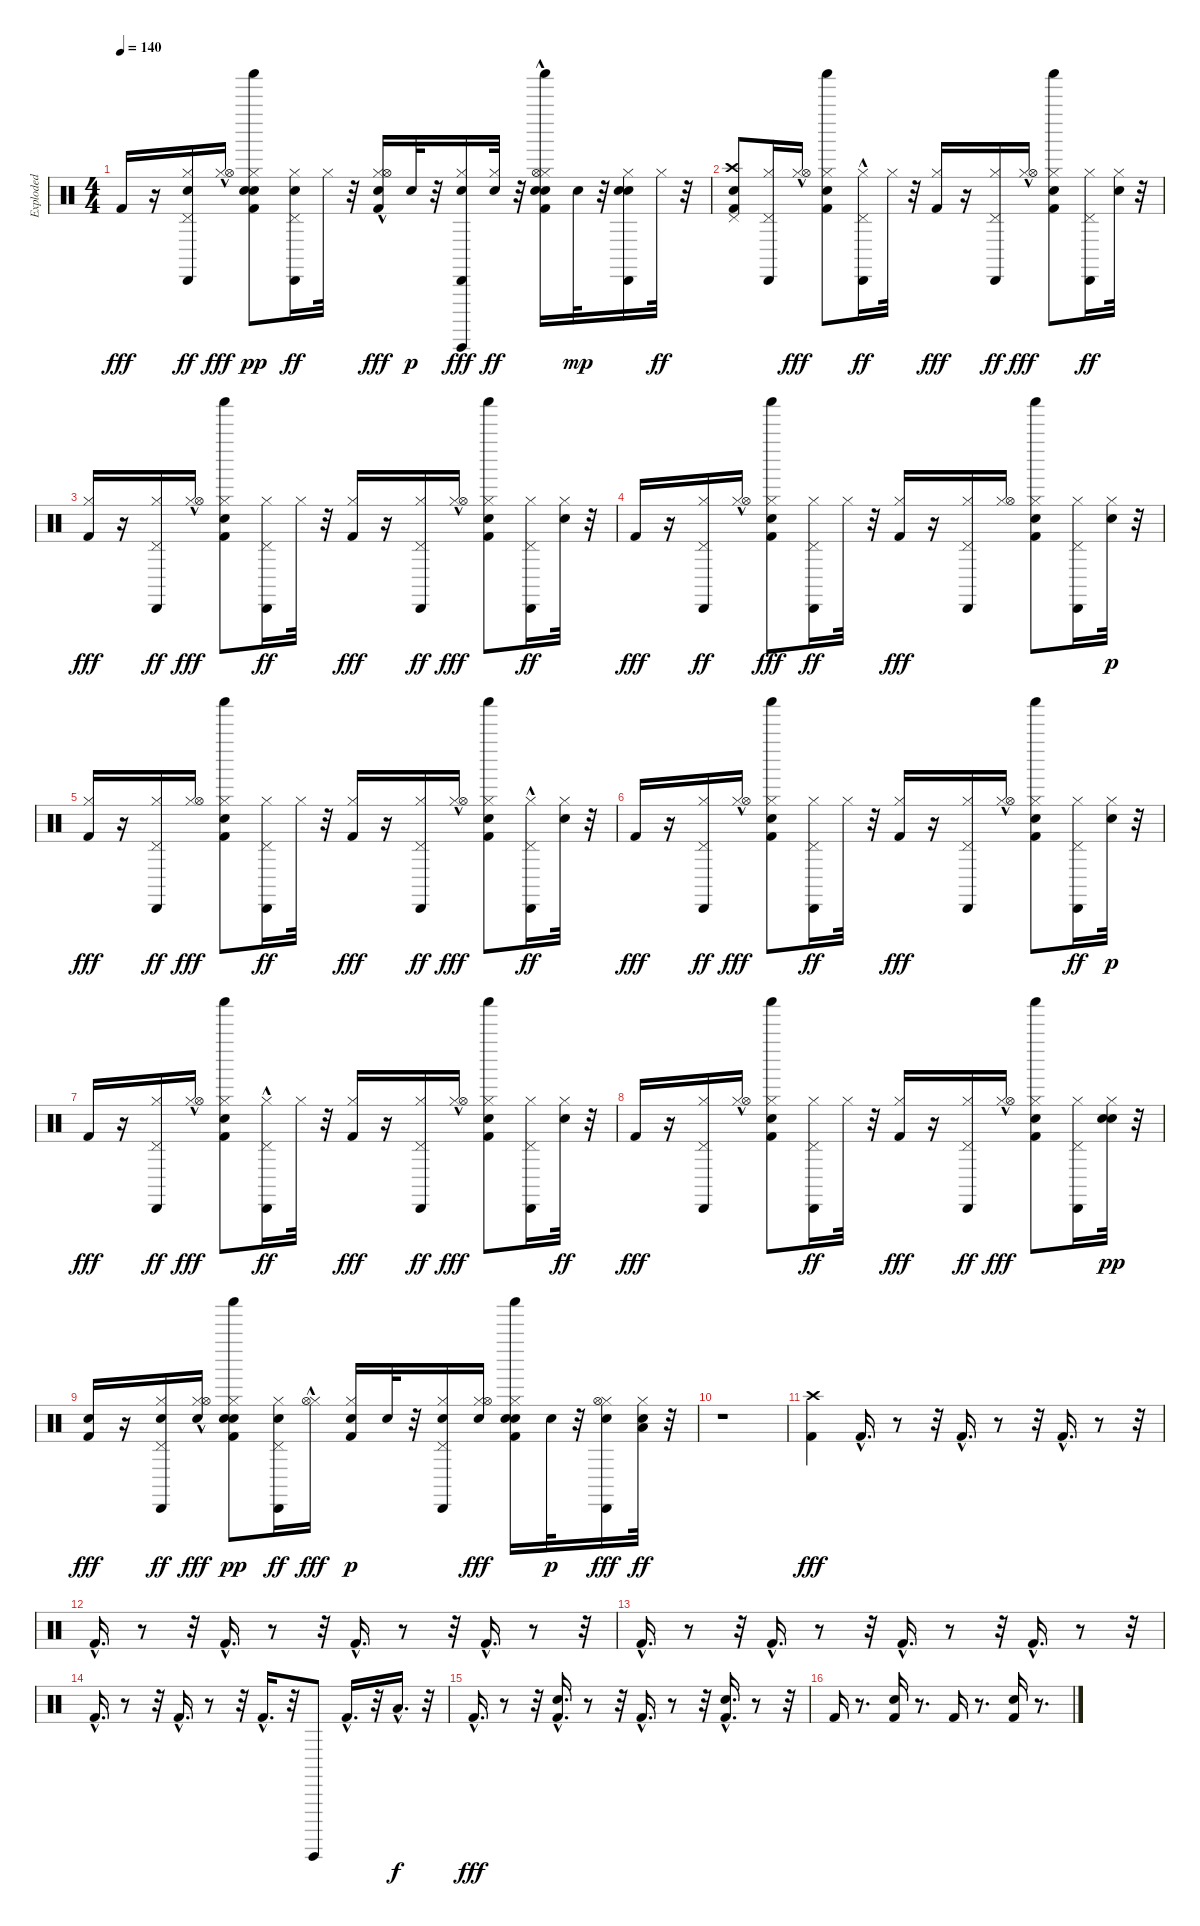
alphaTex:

\track ("Exploded" "Exploded") {instrument percussion}
\staff {score}
\articulation defaults
\ts (4 4)
\tempo 140
\clef neutral
\ks c "Kick (hit) 2".16{dy fff}
r.16 ("Cabasa (hit)" "Hi-Hat (closed)" "Snare (hit) 2" "Pedal Hi-Hat (hit)").16{dy ff} ("Hi-Hat (closed)" "Hi-Hat (open)"{hac}).16{dy fff} ("Hand Clap (hit)" "Shaker (hit)" "Hi-Hat (closed)" "Kick (hit) 2" "Snare (hit) 2").8{dy pp} ("Cabasa (hit)" "Hi-Hat (closed)" "Snare (hit) 2" "Pedal Hi-Hat (hit)").16{dy ff} "Hi-Hat (closed)".32 r.32 ("Hi-Hat (closed)" "Kick (hit) 2" "Snare (hit) 2" "Hi-Hat (open)"{hac}).16{dy fff} "Snare (hit) 2".32{dy p} r.32 ("Guiro (hit)" "Snare (hit) 2" "Cabasa (hit)" "Hi-Hat (closed)").16{dy fff} ("Snare (hit) 2" "Hi-Hat (closed)").32{dy ff} r.32 ("Snare (hit) 2" "Hand Clap (hit)" "Shaker (hit)" "Hi-Hat (closed)" "Kick (hit) 2" "Hi-Hat (open)"{hac}).16 "Snare (hit) 2".32{dy mp} r.32 ("Snare (hit) 2" "Cabasa (hit)" "Hi-Hat (closed)" "Snare (hit) 2").16 "Hi-Hat (closed)".32{dy ff} r.32 |
("Snare (hit) 2" "Crash high (hit)" "Kick (hit) 2" "Pedal Hi-Hat (hit)").8 ("Cabasa (hit)" "Hi-Hat (closed)" "Pedal Hi-Hat (hit)").16 ("Hi-Hat (closed)" "Hi-Hat (open)"{hac}).16{dy fff} ("Hand Clap (hit)" "Shaker (hit)" "Hi-Hat (closed)" "Kick (hit) 2").8 ("Cabasa (hit)"{hac} "Hi-Hat (closed)" "Pedal Hi-Hat (hit)").16{dy ff} "Hi-Hat (closed)".32 r.32 ("Hi-Hat (closed)" "Kick (hit) 2").16{dy fff} r.16 ("Cabasa (hit)" "Hi-Hat (closed)" "Pedal Hi-Hat (hit)").16{dy ff} ("Hi-Hat (closed)" "Hi-Hat (open)"{hac}).16{dy fff} ("Hand Clap (hit)" "Shaker (hit)" "Hi-Hat (closed)" "Kick (hit) 2").8 ("Cabasa (hit)" "Hi-Hat (closed)" "Pedal Hi-Hat (hit)").16{dy ff} ("Snare (hit) 2" "Hi-Hat (closed)").32 r.32 |
("Hi-Hat (closed)" "Kick (hit) 2").16{dy fff} r.16 ("Cabasa (hit)" "Hi-Hat (closed)" "Pedal Hi-Hat (hit)").16{dy ff} ("Hi-Hat (closed)" "Hi-Hat (open)"{hac}).16{dy fff} ("Hand Clap (hit)" "Shaker (hit)" "Hi-Hat (closed)" "Kick (hit) 2").8 ("Cabasa (hit)" "Hi-Hat (closed)" "Pedal Hi-Hat (hit)").16{dy ff} "Hi-Hat (closed)".32 r.32 ("Hi-Hat (closed)" "Kick (hit) 2").16{dy fff} r.16 ("Cabasa (hit)" "Hi-Hat (closed)" "Pedal Hi-Hat (hit)").16{dy ff} ("Hi-Hat (closed)" "Hi-Hat (open)"{hac}).16{dy fff} ("Hand Clap (hit)" "Shaker (hit)" "Hi-Hat (closed)" "Kick (hit) 2").8 ("Cabasa (hit)" "Hi-Hat (closed)" "Pedal Hi-Hat (hit)").16{dy ff} ("Snare (hit) 2" "Hi-Hat (closed)").32 r.32 |
"Kick (hit) 2".16{dy fff} r.16 ("Cabasa (hit)" "Hi-Hat (closed)" "Pedal Hi-Hat (hit)").16{dy ff} ("Hi-Hat (closed)" "Hi-Hat (open)"{hac}).16 ("Hand Clap (hit)" "Shaker (hit)" "Hi-Hat (closed)" "Kick (hit) 2").8{dy fff} ("Cabasa (hit)" "Hi-Hat (closed)" "Pedal Hi-Hat (hit)").16{dy ff} "Hi-Hat (closed)".32 r.32 ("Hi-Hat (closed)" "Kick (hit) 2").16{dy fff} r.16 ("Cabasa (hit)" "Hi-Hat (closed)" "Pedal Hi-Hat (hit)").16 ("Hi-Hat (closed)" "Hi-Hat (open)").16 ("Hand Clap (hit)" "Shaker (hit)" "Hi-Hat (closed)" "Kick (hit) 2").8 ("Cabasa (hit)" "Hi-Hat (closed)" "Pedal Hi-Hat (hit)").16 ("Hi-Hat (closed)" "Snare (hit) 2").32{dy p} r.32 |
("Hi-Hat (closed)" "Kick (hit) 2").16{dy fff} r.16 ("Cabasa (hit)" "Hi-Hat (closed)" "Pedal Hi-Hat (hit)").16{dy ff} ("Hi-Hat (closed)" "Hi-Hat (open)").16{dy fff} ("Hand Clap (hit)" "Shaker (hit)" "Hi-Hat (closed)" "Kick (hit) 2").8 ("Cabasa (hit)" "Hi-Hat (closed)" "Pedal Hi-Hat (hit)").16{dy ff} "Hi-Hat (closed)".32 r.32 ("Hi-Hat (closed)" "Kick (hit) 2").16{dy fff} r.16 ("Cabasa (hit)" "Hi-Hat (closed)" "Pedal Hi-Hat (hit)").16{dy ff} ("Hi-Hat (closed)" "Hi-Hat (open)"{hac}).16{dy fff} ("Hand Clap (hit)" "Shaker (hit)" "Hi-Hat (closed)" "Kick (hit) 2").8 ("Cabasa (hit)"{hac} "Hi-Hat (closed)" "Pedal Hi-Hat (hit)").16{dy ff} ("Snare (hit) 2" "Hi-Hat (closed)").32 r.32 |
"Kick (hit) 2".16{dy fff} r.16 ("Cabasa (hit)" "Hi-Hat (closed)" "Pedal Hi-Hat (hit)").16{dy ff} ("Hi-Hat (closed)" "Hi-Hat (open)"{hac}).16{dy fff} ("Hand Clap (hit)" "Shaker (hit)" "Hi-Hat (closed)" "Kick (hit) 2").8 ("Cabasa (hit)" "Hi-Hat (closed)" "Pedal Hi-Hat (hit)").16{dy ff} "Hi-Hat (closed)".32 r.32 ("Hi-Hat (closed)" "Kick (hit) 2").16{dy fff} r.16 ("Cabasa (hit)" "Hi-Hat (closed)" "Pedal Hi-Hat (hit)").16 ("Hi-Hat (closed)" "Hi-Hat (open)"{hac}).16 ("Hand Clap (hit)" "Shaker (hit)" "Hi-Hat (closed)" "Kick (hit) 2").8 ("Cabasa (hit)" "Hi-Hat (closed)" "Pedal Hi-Hat (hit)").16{dy ff} ("Hi-Hat (closed)" "Snare (hit) 2").32{dy p} r.32 |
"Kick (hit) 2".16{dy fff} r.16 ("Cabasa (hit)" "Hi-Hat (closed)" "Pedal Hi-Hat (hit)").16{dy ff} ("Hi-Hat (closed)" "Hi-Hat (open)"{hac}).16{dy fff} ("Hand Clap (hit)" "Shaker (hit)" "Hi-Hat (closed)" "Kick (hit) 2").8 ("Cabasa (hit)" "Hi-Hat (closed)" "Pedal Hi-Hat (hit)"{hac}).16{dy ff} "Hi-Hat (closed)".32 r.32 ("Hi-Hat (closed)" "Kick (hit) 2").16{dy fff} r.16 ("Cabasa (hit)" "Hi-Hat (closed)" "Pedal Hi-Hat (hit)").16{dy ff} ("Hi-Hat (closed)" "Hi-Hat (open)"{hac}).16{dy fff} ("Hand Clap (hit)" "Shaker (hit)" "Hi-Hat (closed)" "Kick (hit) 2").8 ("Cabasa (hit)" "Hi-Hat (closed)" "Pedal Hi-Hat (hit)").16 ("Snare (hit) 2" "Hi-Hat (closed)").32{dy ff} r.32 |
"Kick (hit) 2".16{dy fff} r.16 ("Cabasa (hit)" "Hi-Hat (closed)" "Pedal Hi-Hat (hit)").16 ("Hi-Hat (closed)" "Hi-Hat (open)"{hac}).16 ("Hand Clap (hit)" "Shaker (hit)" "Hi-Hat (closed)" "Kick (hit) 2").8 ("Cabasa (hit)" "Hi-Hat (closed)" "Pedal Hi-Hat (hit)").16{dy ff} "Hi-Hat (closed)".32 r.32 ("Hi-Hat (closed)" "Kick (hit) 2").16{dy fff} r.16 ("Cabasa (hit)" "Hi-Hat (closed)" "Pedal Hi-Hat (hit)").16{dy ff} ("Hi-Hat (closed)" "Hi-Hat (open)"{hac}).16{dy fff} ("Hand Clap (hit)" "Shaker (hit)" "Hi-Hat (closed)" "Kick (hit) 2").8 ("Cabasa (hit)" "Hi-Hat (closed)" "Pedal Hi-Hat (hit)").16 ("Snare (hit) 2" "Hi-Hat (closed)" "Snare (hit) 2").32{dy pp} r.32 |
("Snare (hit) 2" "Kick (hit) 2").16{dy fff} r.16 ("Cabasa (hit)" "Hi-Hat (closed)" "Snare (hit) 2" "Pedal Hi-Hat (hit)").16{dy ff} ("Snare (hit) 2" "Hi-Hat (closed)" "Hi-Hat (open)"{hac}).16{dy fff} ("Hand Clap (hit)" "Shaker (hit)" "Hi-Hat (closed)" "Kick (hit) 2" "Snare (hit) 2").8{dy pp} ("Cabasa (hit)" "Hi-Hat (closed)" "Snare (hit) 2" "Pedal Hi-Hat (hit)").16{dy ff} ("Hi-Hat (closed)" "Hi-Hat (open)"{hac}).16{dy fff} ("Hi-Hat (closed)" "Kick (hit) 2" "Snare (hit) 2").16{dy p} "Snare (hit) 2".32 r.32 ("Cabasa (hit)" "Hi-Hat (closed)" "Snare (hit) 2" "Pedal Hi-Hat (hit)").16 ("Snare (hit) 2" "Hi-Hat (closed)" "Hi-Hat (open)").16{dy fff} ("Snare (hit) 2" "Hand Clap (hit)" "Shaker (hit)" "Hi-Hat (closed)" "Kick (hit) 2").16 "Snare (hit) 2".32{dy p} r.32 ("Snare (hit) 2" "Cabasa (hit)" "Hi-Hat (closed)" "Hi-Hat (open)").16{dy fff} ("Low Floor Tom (hit)" "Snare (hit) 2" "Hi-Hat (closed)").32{dy ff} r.32 |
r.1 |
("Crash high (hit)" "Kick (hit) 2").4{dy fff} "Kick (hit) 2"{hac}.16{d} r.8 r.32 "Kick (hit) 2"{hac}.16{d} r.8 r.32 "Kick (hit) 2"{hac}.16{d} r.8 r.32 |
"Kick (hit) 2"{hac}.16{d} r.8 r.32 "Kick (hit) 2"{hac}.16{d} r.8 r.32 "Kick (hit) 2"{hac}.16{d} r.8 r.32 "Kick (hit) 2"{hac}.16{d} r.8 r.32 |
"Kick (hit) 2"{hac}.16{d} r.8 r.32 "Kick (hit) 2"{hac}.16{d} r.8 r.32 "Kick (hit) 2"{hac}.16{d} r.8 r.32 "Kick (hit) 2"{hac}.16{d} r.8 r.32 |
"Kick (hit) 2"{hac}.16{d} r.8 r.32 "Kick (hit) 2"{hac}.16{d} r.8 r.32 "Kick (hit) 2"{hac}.16{d} r.32 "Guiro (hit)".8 "Kick (hit) 2"{hac}.16{d} r.32 "Low Floor Tom (hit)"{hac}.16{d dy f} r.32 |
"Kick (hit) 2"{hac}.16{d dy fff} r.8 r.32 ("Hand Clap (hit)" "Kick (hit) 2"{hac}).16{d} r.8 r.32 "Kick (hit) 2"{hac}.16{d} r.8 r.32 ("Hand Clap (hit)" "Kick (hit) 2"{hac}).16{d} r.8 r.32 |
"Kick (hit) 2".16 r.8{d} ("Hand Clap (hit)" "Kick (hit) 2").16 r.8{d} "Kick (hit) 2".16 r.8{d} ("Hand Clap (hit)" "Kick (hit) 2").16 r.8{d}
